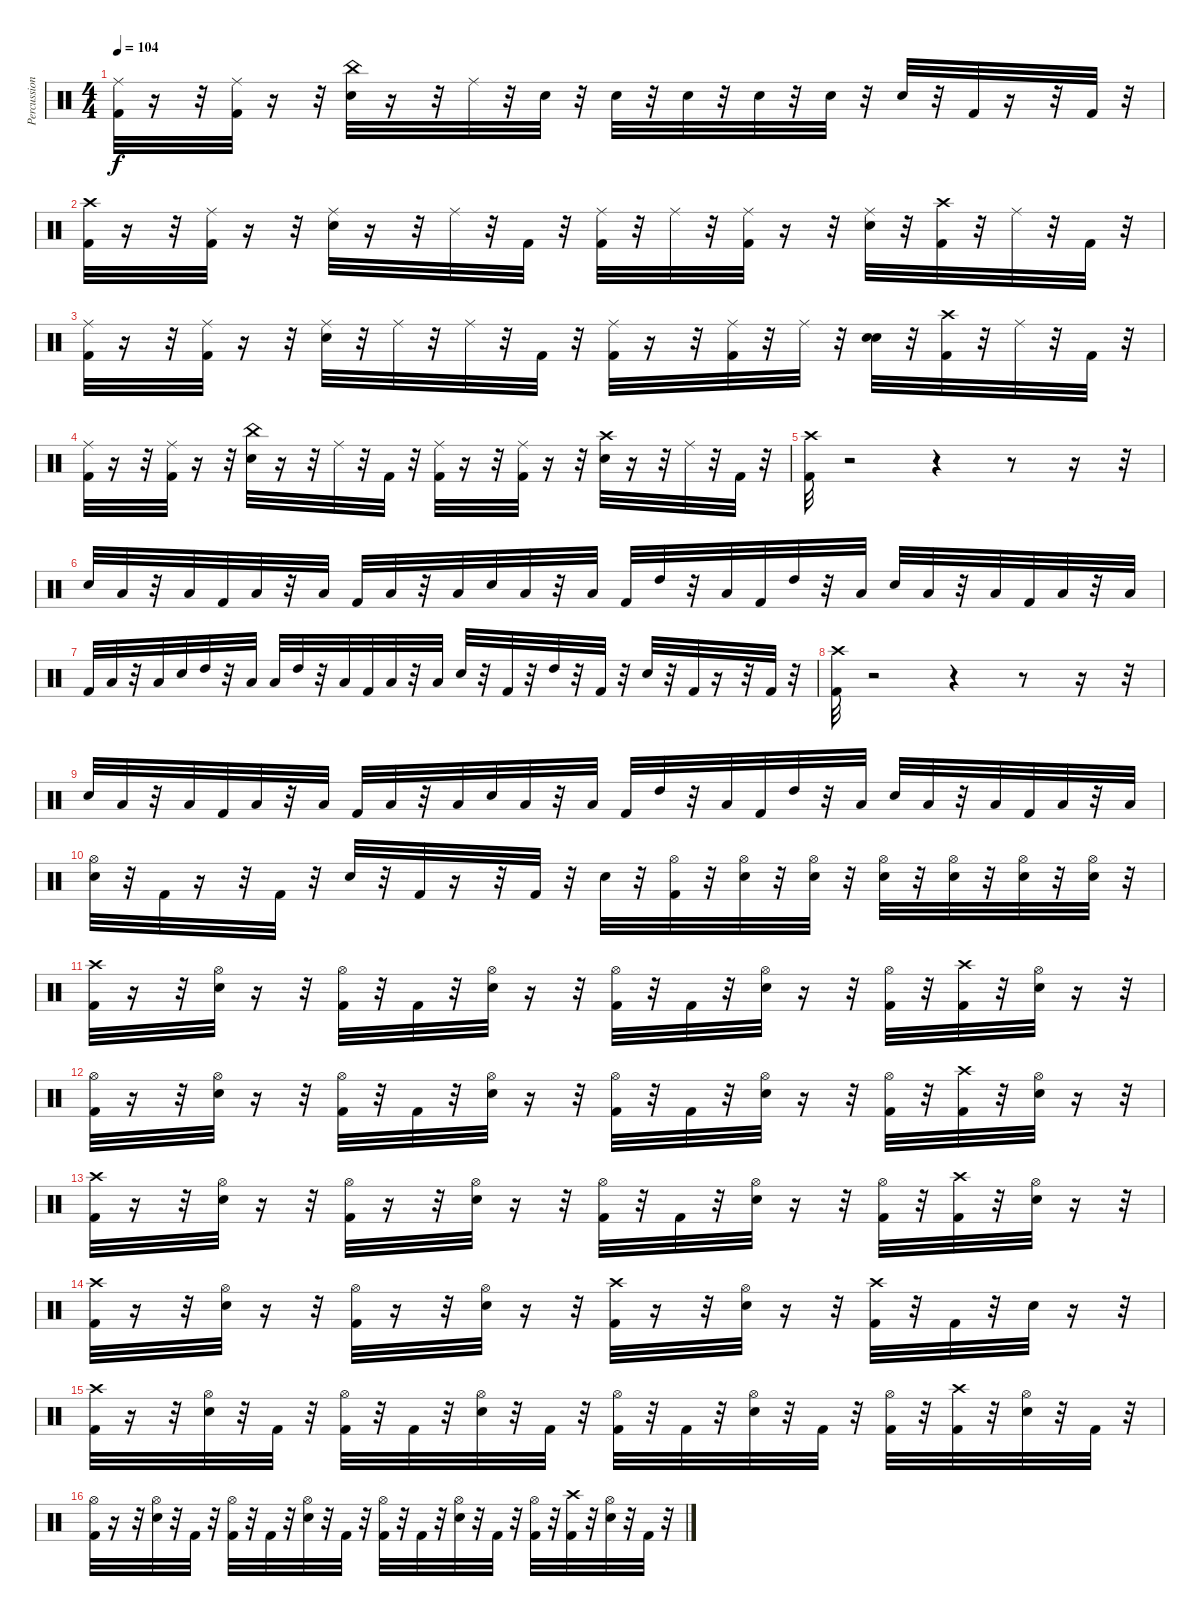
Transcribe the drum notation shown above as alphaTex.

\track ("Percussions" "Percussion") {instrument percussion}
\staff {score}
\articulation defaults
\ts (4 4)
\tempo 104
\clef neutral
\ks c
("Ride (middle)" "Kick (hit) 2").32{dy f} r.16 r.32 ("Kick (hit) 2" "Ride (middle)").32 r.16 r.32 ("Snare (hit) 2" "China (hit)").32 r.16 r.32 "Ride (middle)".32 r.32 "Snare (hit) 2".32 r.32 "Snare (hit) 2".32 r.32 "Snare (hit) 2".32 r.32 "Snare (hit) 2".32 r.32 "Snare (hit) 2".32 r.32 "Snare (hit) 2".32 r.32 "Kick (hit) 2".32 r.16 r.32 "Kick (hit) 2".32 r.32 |
("Crash high (hit)" "Kick (hit) 2").32 r.16 r.32 ("Kick (hit) 2" "Ride (middle)").32 r.16 r.32 ("Ride (middle)" "Snare (hit) 2").32 r.16 r.32 "Ride (middle)".32 r.32 "Kick (hit) 2".32 r.32 ("Kick (hit) 2" "Ride (middle)").32 r.32 "Ride (middle)".32 r.32 ("Ride (middle)" "Kick (hit) 2").32 r.16 r.32 ("Snare (hit) 2" "Ride (middle)").32 r.32 ("Crash high (hit)" "Kick (hit) 2").32 r.32 "Ride (middle)".32 r.32 "Kick (hit) 2".32 r.32 |
("Kick (hit) 2" "Ride (middle)").32 r.16 r.32 ("Kick (hit) 2" "Ride (middle)").32 r.16 r.32 ("Snare (hit) 2" "Ride (middle)").32 r.32 "Ride (middle)".32 r.32 "Ride (middle)".32 r.32 "Kick (hit) 2".32 r.32 ("Ride (middle)" "Kick (hit) 2").32 r.16 r.32 ("Kick (hit) 2" "Ride (middle)").32 r.32 "Ride (middle)".32 r.32 ("Electric Snare (hit)" "Snare (hit) 2").32 r.32 ("Kick (hit) 2" "Crash high (hit)").32 r.32 "Ride (middle)".32 r.32 "Kick (hit) 2".32 r.32 |
("Kick (hit) 2" "Ride (middle)").32 r.16 r.32 ("Kick (hit) 2" "Ride (middle)").32 r.16 r.32 ("China (hit)" "Snare (hit) 2").32 r.16 r.32 "Ride (middle)".32 r.32 "Kick (hit) 2".32 r.32 ("Kick (hit) 2" "Ride (middle)").32 r.16 r.32 ("Ride (middle)" "Kick (hit) 2").32 r.16 r.32 ("Snare (hit) 2" "Crash high (hit)").32 r.16 r.32 "Ride (middle)".32 r.32 "Kick (hit) 2".32 r.32 |
("Crash high (hit)" "Kick (hit) 2").32 r.2 r.4 r.8 r.16 r.32 |
"Snare (hit) 2".32 "Low Tom (hit)".32 r.32 "Low Floor Tom (hit)".32 "Kick (hit) 2".32 "Low Tom (hit)".32 r.32 "Low Floor Tom (hit)".32 "Kick (hit) 2".32 "Low Tom (hit)".32 r.32 "Low Floor Tom (hit)".32 "Snare (hit) 2".32 "Low Tom (hit)".32 r.32 "Low Floor Tom (hit)".32 "Kick (hit) 2".32 "High Tom (hit)".32 r.32 "Low Tom (hit)".32 "Kick (hit) 2".32 "High Tom (hit)".32 r.32 "Low Tom (hit)".32 "Snare (hit) 2".32 "Low Tom (hit)".32 r.32 "Low Floor Tom (hit)".32 "Kick (hit) 2".32 "Low Tom (hit)".32 r.32 "Low Floor Tom (hit)".32 |
"Kick (hit) 2".32 "Low Tom (hit)".32 r.32 "Low Floor Tom (hit)".32 "Snare (hit) 2".32 "High Tom (hit)".32 r.32 "Low Tom (hit)".32 "Low Floor Tom (hit)".32 "High Tom (hit)".32 r.32 "Low Tom (hit)".32 "Kick (hit) 2".32 "Low Tom (hit)".32 r.32 "Low Floor Tom (hit)".32 "Snare (hit) 2".32 r.32 "Kick (hit) 2".32 r.32 "High Tom (hit)".32 r.32 "Kick (hit) 2".32 r.32 "Snare (hit) 2".32 r.32 "Kick (hit) 2".32 r.16 r.32 "Kick (hit) 2".32 r.32 |
("Crash high (hit)" "Kick (hit) 2").32 r.2 r.4 r.8 r.16 r.32 |
"Snare (hit) 2".32 "Low Tom (hit)".32 r.32 "Low Floor Tom (hit)".32 "Kick (hit) 2".32 "Low Tom (hit)".32 r.32 "Low Floor Tom (hit)".32 "Kick (hit) 2".32 "Low Tom (hit)".32 r.32 "Low Floor Tom (hit)".32 "Snare (hit) 2".32 "Low Tom (hit)".32 r.32 "Low Floor Tom (hit)".32 "Kick (hit) 2".32 "High Tom (hit)".32 r.32 "Low Tom (hit)".32 "Kick (hit) 2".32 "High Tom (hit)".32 r.32 "Low Tom (hit)".32 "Snare (hit) 2".32 "Low Tom (hit)".32 r.32 "Low Floor Tom (hit)".32 "Kick (hit) 2".32 "Low Tom (hit)".32 r.32 "Low Floor Tom (hit)".32 |
("Snare (hit) 2" "Hi-Hat (open)").32 r.32 "Kick (hit) 2".32 r.16 r.32 "Kick (hit) 2".32 r.32 "Snare (hit) 2".32 r.32 "Kick (hit) 2".32 r.16 r.32 "Kick (hit) 2".32 r.32 "Snare (hit) 2".32 r.32 ("Kick (hit) 2" "Hi-Hat (open)").32 r.32 ("Snare (hit) 2" "Hi-Hat (open)").32 r.32 ("Snare (hit) 2" "Hi-Hat (open)").32 r.32 ("Snare (hit) 2" "Hi-Hat (open)").32 r.32 ("Snare (hit) 2" "Hi-Hat (open)").32 r.32 ("Snare (hit) 2" "Hi-Hat (open)").32 r.32 ("Snare (hit) 2" "Hi-Hat (open)").32 r.32 |
("Crash high (hit)" "Kick (hit) 2").32 r.16 r.32 ("Snare (hit) 2" "Hi-Hat (open)").32 r.16 r.32 ("Kick (hit) 2" "Hi-Hat (open)").32 r.32 "Kick (hit) 2".32 r.32 ("Hi-Hat (open)" "Snare (hit) 2").32 r.16 r.32 ("Kick (hit) 2" "Hi-Hat (open)").32 r.32 "Kick (hit) 2".32 r.32 ("Hi-Hat (open)" "Snare (hit) 2").32 r.16 r.32 ("Kick (hit) 2" "Hi-Hat (open)").32 r.32 ("Kick (hit) 2" "Crash high (hit)").32 r.32 ("Snare (hit) 2" "Hi-Hat (open)").32 r.16 r.32 |
("Hi-Hat (open)" "Kick (hit) 2").32 r.16 r.32 ("Hi-Hat (open)" "Snare (hit) 2").32 r.16 r.32 ("Hi-Hat (open)" "Kick (hit) 2").32 r.32 "Kick (hit) 2".32 r.32 ("Snare (hit) 2" "Hi-Hat (open)").32 r.16 r.32 ("Kick (hit) 2" "Hi-Hat (open)").32 r.32 "Kick (hit) 2".32 r.32 ("Snare (hit) 2" "Hi-Hat (open)").32 r.16 r.32 ("Kick (hit) 2" "Hi-Hat (open)").32 r.32 ("Crash high (hit)" "Kick (hit) 2").32 r.32 ("Snare (hit) 2" "Hi-Hat (open)").32 r.16 r.32 |
("Crash high (hit)" "Kick (hit) 2").32 r.16 r.32 ("Snare (hit) 2" "Hi-Hat (open)").32 r.16 r.32 ("Hi-Hat (open)" "Kick (hit) 2").32 r.16 r.32 ("Hi-Hat (open)" "Snare (hit) 2").32 r.16 r.32 ("Hi-Hat (open)" "Kick (hit) 2").32 r.32 "Kick (hit) 2".32 r.32 ("Snare (hit) 2" "Hi-Hat (open)").32 r.16 r.32 ("Hi-Hat (open)" "Kick (hit) 2").32 r.32 ("Kick (hit) 2" "Crash high (hit)").32 r.32 ("Hi-Hat (open)" "Snare (hit) 2").32 r.16 r.32 |
("Crash high (hit)" "Kick (hit) 2").32 r.16 r.32 ("Hi-Hat (open)" "Snare (hit) 2").32 r.16 r.32 ("Kick (hit) 2" "Hi-Hat (open)").32 r.16 r.32 ("Hi-Hat (open)" "Snare (hit) 2").32 r.16 r.32 ("Crash high (hit)" "Kick (hit) 2").32 r.16 r.32 ("Hi-Hat (open)" "Snare (hit) 2").32 r.16 r.32 ("Kick (hit) 2" "Crash high (hit)").32 r.32 "Kick (hit) 2".32 r.32 "Snare (hit) 2".32 r.16 r.32 |
("Crash high (hit)" "Kick (hit) 2").32 r.16 r.32 ("Snare (hit) 2" "Hi-Hat (open)").32 r.32 "Kick (hit) 2".32 r.32 ("Kick (hit) 2" "Hi-Hat (open)").32 r.32 "Kick (hit) 2".32 r.32 ("Hi-Hat (open)" "Snare (hit) 2").32 r.32 "Kick (hit) 2".32 r.32 ("Kick (hit) 2" "Hi-Hat (open)").32 r.32 "Kick (hit) 2".32 r.32 ("Hi-Hat (open)" "Snare (hit) 2").32 r.32 "Kick (hit) 2".32 r.32 ("Kick (hit) 2" "Hi-Hat (open)").32 r.32 ("Kick (hit) 2" "Crash high (hit)").32 r.32 ("Snare (hit) 2" "Hi-Hat (open)").32 r.32 "Kick (hit) 2".32 r.32 |
("Hi-Hat (open)" "Kick (hit) 2").32 r.16 r.32 ("Hi-Hat (open)" "Snare (hit) 2").32 r.32 "Kick (hit) 2".32 r.32 ("Hi-Hat (open)" "Kick (hit) 2").32 r.32 "Kick (hit) 2".32 r.32 ("Snare (hit) 2" "Hi-Hat (open)").32 r.32 "Kick (hit) 2".32 r.32 ("Kick (hit) 2" "Hi-Hat (open)").32 r.32 "Kick (hit) 2".32 r.32 ("Snare (hit) 2" "Hi-Hat (open)").32 r.32 "Kick (hit) 2".32 r.32 ("Kick (hit) 2" "Hi-Hat (open)").32 r.32 ("Crash high (hit)" "Kick (hit) 2").32 r.32 ("Snare (hit) 2" "Hi-Hat (open)").32 r.32 "Kick (hit) 2".32 r.32
